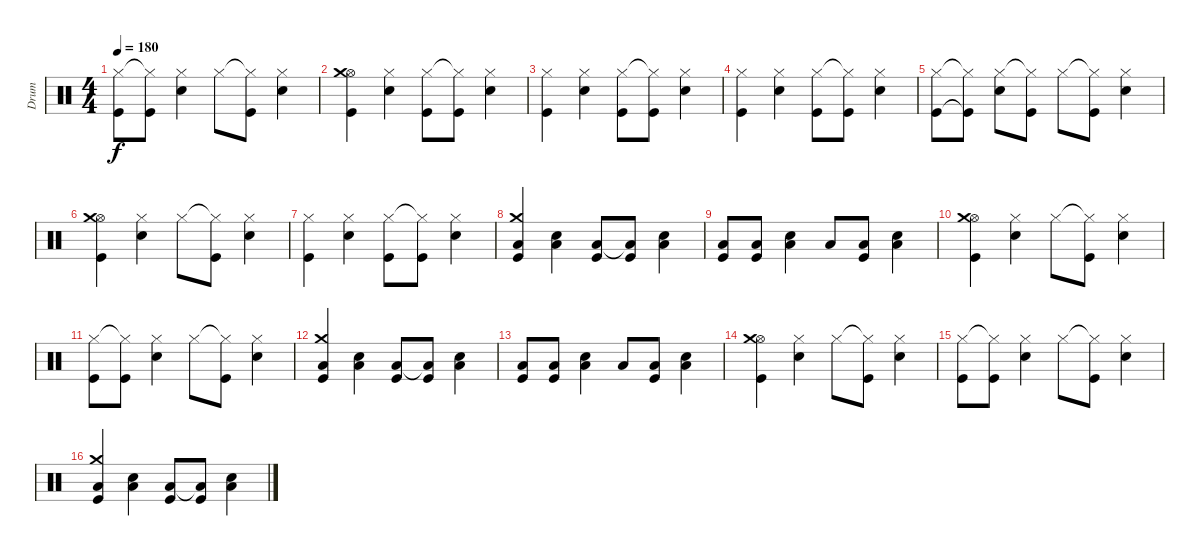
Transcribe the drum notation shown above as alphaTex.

\track ("Drum" "Drum") {instrument percussion}
\staff {score}
\articulation defaults
\ts (4 4)
\tempo 180
\clef neutral
\ks c
("Hi-Hat (closed)" "Kick (hit)").8{dy f} ("Hi-Hat (closed)"{t} "Kick (hit)").8 ("Hi-Hat (closed)" "Snare (hit) 2").4 "Hi-Hat (closed)".8 ("Hi-Hat (closed)"{t} "Kick (hit)").8 ("Hi-Hat (closed)" "Snare (hit) 2").4 |
("Hi-Hat (open)" "Crash medium (hit)" "Kick (hit)").4 ("Hi-Hat (closed)" "Snare (hit) 2").4 ("Hi-Hat (closed)" "Kick (hit)").8 ("Hi-Hat (closed)"{t} "Kick (hit)").8 ("Hi-Hat (closed)" "Snare (hit) 2").4 |
("Hi-Hat (closed)" "Kick (hit)").4 ("Hi-Hat (closed)" "Snare (hit) 2").4 ("Hi-Hat (closed)" "Kick (hit)").8 ("Hi-Hat (closed)"{t} "Kick (hit)").8 ("Hi-Hat (closed)" "Snare (hit) 2").4 |
("Hi-Hat (closed)" "Kick (hit)").4 ("Hi-Hat (closed)" "Snare (hit) 2").4 ("Hi-Hat (closed)" "Kick (hit)").8 ("Hi-Hat (closed)"{t} "Kick (hit)").8 ("Hi-Hat (closed)" "Snare (hit) 2").4 |
("Hi-Hat (closed)" "Kick (hit)").8 ("Hi-Hat (closed)"{t} "Kick (hit)"{t}).8 ("Hi-Hat (closed)" "Snare (hit) 2").8 ("Hi-Hat (closed)"{t} "Kick (hit)").8 "Hi-Hat (closed)".8 ("Hi-Hat (closed)"{t} "Kick (hit)").8 ("Hi-Hat (closed)" "Snare (hit) 2").4 |
("Hi-Hat (open)" "Crash medium (hit)" "Kick (hit)").4 ("Hi-Hat (closed)" "Snare (hit) 2").4 "Hi-Hat (closed)".8 ("Hi-Hat (closed)"{t} "Kick (hit)").8 ("Hi-Hat (closed)" "Snare (hit) 2").4 |
("Hi-Hat (closed)" "Kick (hit)").4 ("Hi-Hat (closed)" "Snare (hit) 2").4 ("Hi-Hat (closed)" "Kick (hit)").8 ("Hi-Hat (closed)"{t} "Kick (hit)").8 ("Hi-Hat (closed)" "Snare (hit) 2").4 |
("Low Floor Tom (hit)" "Crash medium (hit)" "Kick (hit)").4 ("Low Floor Tom (hit)" "Snare (hit) 2").4 ("Low Floor Tom (hit)" "Kick (hit)").8 ("Low Floor Tom (hit)"{t} "Kick (hit)").8 ("Low Floor Tom (hit)" "Snare (hit) 2").4 |
("Low Floor Tom (hit)" "Kick (hit)").8 ("Low Floor Tom (hit)" "Kick (hit)").8 ("Low Floor Tom (hit)" "Snare (hit) 2").4 "Low Floor Tom (hit)".8 ("Low Floor Tom (hit)" "Kick (hit)").8 ("Low Floor Tom (hit)" "Snare (hit) 2").4 |
("Hi-Hat (open)" "Crash medium (hit)" "Kick (hit)").4 ("Hi-Hat (closed)" "Snare (hit) 2").4 "Hi-Hat (closed)".8 ("Hi-Hat (closed)"{t} "Kick (hit)").8 ("Hi-Hat (closed)" "Snare (hit) 2").4 |
("Hi-Hat (closed)" "Kick (hit)").8 ("Hi-Hat (closed)"{t} "Kick (hit)").8 ("Hi-Hat (closed)" "Snare (hit) 2").4 "Hi-Hat (closed)".8 ("Hi-Hat (closed)"{t} "Kick (hit)").8 ("Hi-Hat (closed)" "Snare (hit) 2").4 |
("Low Floor Tom (hit)" "Crash medium (hit)" "Kick (hit)").4 ("Low Floor Tom (hit)" "Snare (hit) 2").4 ("Low Floor Tom (hit)" "Kick (hit)").8 ("Low Floor Tom (hit)"{t} "Kick (hit)").8 ("Low Floor Tom (hit)" "Snare (hit) 2").4 |
("Low Floor Tom (hit)" "Kick (hit)").8 ("Low Floor Tom (hit)" "Kick (hit)").8 ("Low Floor Tom (hit)" "Snare (hit) 2").4 "Low Floor Tom (hit)".8 ("Low Floor Tom (hit)" "Kick (hit)").8 ("Low Floor Tom (hit)" "Snare (hit) 2").4 |
("Hi-Hat (open)" "Crash medium (hit)" "Kick (hit)").4 ("Hi-Hat (closed)" "Snare (hit) 2").4 "Hi-Hat (closed)".8 ("Hi-Hat (closed)"{t} "Kick (hit)").8 ("Hi-Hat (closed)" "Snare (hit) 2").4 |
("Hi-Hat (closed)" "Kick (hit)").8 ("Hi-Hat (closed)"{t} "Kick (hit)").8 ("Hi-Hat (closed)" "Snare (hit) 2").4 "Hi-Hat (closed)".8 ("Hi-Hat (closed)"{t} "Kick (hit)").8 ("Hi-Hat (closed)" "Snare (hit) 2").4 |
("Low Floor Tom (hit)" "Crash medium (hit)" "Kick (hit)").4 ("Low Floor Tom (hit)" "Snare (hit) 2").4 ("Low Floor Tom (hit)" "Kick (hit)").8 ("Low Floor Tom (hit)"{t} "Kick (hit)").8 ("Low Floor Tom (hit)" "Snare (hit) 2").4
